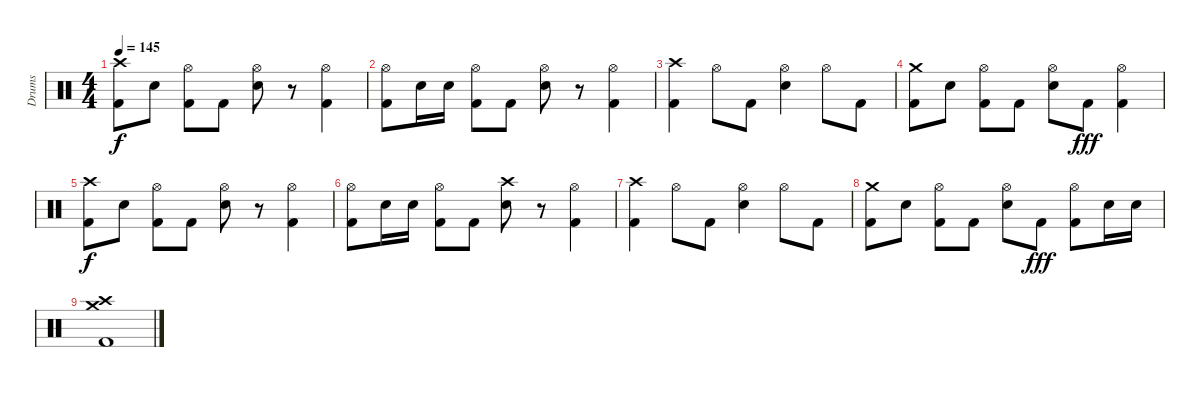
\track ("Drums" "Drums") {instrument percussion}
\staff {score}
\articulation defaults
\ts (4 4)
\tempo 145
\clef neutral
\ks c
("Crash high (hit)" "Kick (hit) 2").8{dy f} "Electric Snare (hit)".8 ("Hi-Hat (open)" "Kick (hit) 2").8 "Kick (hit) 2".8 ("Hi-Hat (open)" "Electric Snare (hit)").8 r.8 ("Hi-Hat (open)" "Kick (hit) 2").4 |
("Hi-Hat (open)" "Kick (hit) 2").8 "Electric Snare (hit)".16 "Electric Snare (hit)".16 ("Hi-Hat (open)" "Kick (hit) 2").8 "Kick (hit) 2".8 ("Hi-Hat (open)" "Electric Snare (hit)").8 r.8 ("Hi-Hat (open)" "Kick (hit) 2").4 |
("Crash high (hit)" "Kick (hit) 2").4 "Hi-Hat (open)".8 "Kick (hit) 2".8 ("Hi-Hat (open)" "Electric Snare (hit)").4 "Hi-Hat (open)".8 "Kick (hit) 2".8 |
("Crash medium (hit)" "Kick (hit) 2").8 "Electric Snare (hit)".8 ("Hi-Hat (open)" "Kick (hit) 2").8 "Kick (hit) 2".8 ("Hi-Hat (open)" "Electric Snare (hit)").8 "Kick (hit) 2".8{dy fff} ("Hi-Hat (open)" "Kick (hit) 2").4 |
("Crash high (hit)" "Kick (hit) 2").8{dy f} "Electric Snare (hit)".8 ("Hi-Hat (open)" "Kick (hit) 2").8 "Kick (hit) 2".8 ("Hi-Hat (open)" "Electric Snare (hit)").8 r.8 ("Hi-Hat (open)" "Kick (hit) 2").4 |
("Hi-Hat (open)" "Kick (hit) 2").8 "Electric Snare (hit)".16 "Electric Snare (hit)".16 ("Hi-Hat (open)" "Kick (hit) 2").8 "Kick (hit) 2".8 ("Crash high (hit)" "Electric Snare (hit)").8 r.8 ("Hi-Hat (open)" "Kick (hit) 2").4 |
("Crash high (hit)" "Kick (hit) 2").4 "Hi-Hat (open)".8 "Kick (hit) 2".8 ("Hi-Hat (open)" "Electric Snare (hit)").4 "Hi-Hat (open)".8 "Kick (hit) 2".8 |
("Crash medium (hit)" "Kick (hit) 2").8 "Electric Snare (hit)".8 ("Hi-Hat (open)" "Kick (hit) 2").8 "Kick (hit) 2".8 ("Hi-Hat (open)" "Electric Snare (hit)").8 "Kick (hit) 2".8{dy fff} ("Hi-Hat (open)" "Kick (hit) 2").8 "Electric Snare (hit)".16 "Electric Snare (hit)".16 |
("Crash high (hit)" "Crash medium (hit)" "Kick (hit) 2").1
